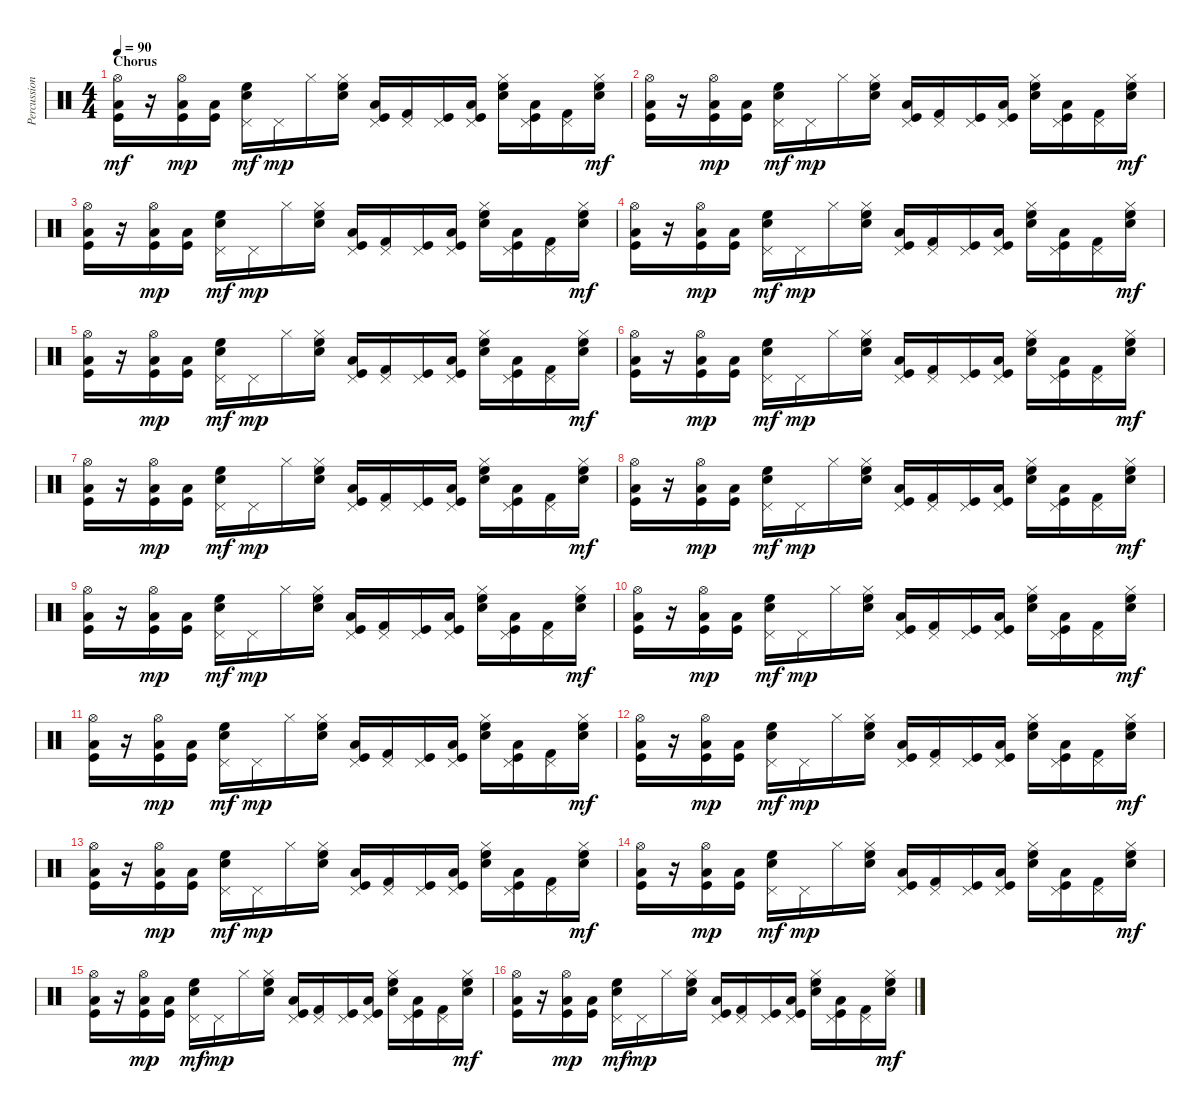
\track ("Percussion" "Percussion") {instrument percussion}
\staff {score}
\articulation defaults
\ts (4 4)
\section ("" "Chorus")
\tempo 90
\clef neutral
\ks c
("Kick (hit)" "Low Tom (hit)" "Hi-Hat (open)").16{dy mf} r.16 ("Kick (hit)" "Low Tom (hit)" "Hi-Hat (open)").16{dy mp} ("Kick (hit)" "Low Tom (hit)").16 ("Snare (hit) 2" "High Floor Tom (hit)" "Pedal Hi-Hat (hit)").16{dy mf} "Pedal Hi-Hat (hit)".16{dy mp} "Hi-Hat (closed)".16 ("Snare (hit) 2" "High Floor Tom (hit)" "Hi-Hat (closed)").16 ("Kick (hit)" "Low Tom (hit)" "Pedal Hi-Hat (hit)").16 ("Kick (hit) 2" "Pedal Hi-Hat (hit)").16 ("Kick (hit)" "Pedal Hi-Hat (hit)").16 ("Kick (hit)" "Low Tom (hit)" "Pedal Hi-Hat (hit)").16 ("Snare (hit) 2" "High Floor Tom (hit)" "Hi-Hat (closed)").16 ("Kick (hit)" "Low Tom (hit)" "Pedal Hi-Hat (hit)").16 ("Kick (hit) 2" "Pedal Hi-Hat (hit)").16 ("Snare (hit) 2" "High Floor Tom (hit)" "Hi-Hat (closed)").16{dy mf} |
("Kick (hit)" "Low Tom (hit)" "Hi-Hat (open)").16 r.16 ("Kick (hit)" "Low Tom (hit)" "Hi-Hat (open)").16{dy mp} ("Kick (hit)" "Low Tom (hit)").16 ("Snare (hit) 2" "High Floor Tom (hit)" "Pedal Hi-Hat (hit)").16{dy mf} "Pedal Hi-Hat (hit)".16{dy mp} "Hi-Hat (closed)".16 ("Snare (hit) 2" "High Floor Tom (hit)" "Hi-Hat (closed)").16 ("Kick (hit)" "Low Tom (hit)" "Pedal Hi-Hat (hit)").16 ("Kick (hit) 2" "Pedal Hi-Hat (hit)").16 ("Kick (hit)" "Pedal Hi-Hat (hit)").16 ("Kick (hit)" "Low Tom (hit)" "Pedal Hi-Hat (hit)").16 ("Snare (hit) 2" "High Floor Tom (hit)" "Hi-Hat (closed)").16 ("Kick (hit)" "Low Tom (hit)" "Pedal Hi-Hat (hit)").16 ("Kick (hit) 2" "Pedal Hi-Hat (hit)").16 ("Snare (hit) 2" "High Floor Tom (hit)" "Hi-Hat (closed)").16{dy mf} |
("Kick (hit)" "Low Tom (hit)" "Hi-Hat (open)").16 r.16 ("Kick (hit)" "Low Tom (hit)" "Hi-Hat (open)").16{dy mp} ("Kick (hit)" "Low Tom (hit)").16 ("Snare (hit) 2" "High Floor Tom (hit)" "Pedal Hi-Hat (hit)").16{dy mf} "Pedal Hi-Hat (hit)".16{dy mp} "Hi-Hat (closed)".16 ("Snare (hit) 2" "High Floor Tom (hit)" "Hi-Hat (closed)").16 ("Kick (hit)" "Low Tom (hit)" "Pedal Hi-Hat (hit)").16 ("Kick (hit) 2" "Pedal Hi-Hat (hit)").16 ("Kick (hit)" "Pedal Hi-Hat (hit)").16 ("Kick (hit)" "Low Tom (hit)" "Pedal Hi-Hat (hit)").16 ("Snare (hit) 2" "High Floor Tom (hit)" "Hi-Hat (closed)").16 ("Kick (hit)" "Low Tom (hit)" "Pedal Hi-Hat (hit)").16 ("Kick (hit) 2" "Pedal Hi-Hat (hit)").16 ("Snare (hit) 2" "High Floor Tom (hit)" "Hi-Hat (closed)").16{dy mf} |
("Kick (hit)" "Low Tom (hit)" "Hi-Hat (open)").16 r.16 ("Kick (hit)" "Low Tom (hit)" "Hi-Hat (open)").16{dy mp} ("Kick (hit)" "Low Tom (hit)").16 ("Snare (hit) 2" "High Floor Tom (hit)" "Pedal Hi-Hat (hit)").16{dy mf} "Pedal Hi-Hat (hit)".16{dy mp} "Hi-Hat (closed)".16 ("Snare (hit) 2" "High Floor Tom (hit)" "Hi-Hat (closed)").16 ("Kick (hit)" "Low Tom (hit)" "Pedal Hi-Hat (hit)").16 ("Kick (hit) 2" "Pedal Hi-Hat (hit)").16 ("Kick (hit)" "Pedal Hi-Hat (hit)").16 ("Kick (hit)" "Low Tom (hit)" "Pedal Hi-Hat (hit)").16 ("Snare (hit) 2" "High Floor Tom (hit)" "Hi-Hat (closed)").16 ("Kick (hit)" "Low Tom (hit)" "Pedal Hi-Hat (hit)").16 ("Kick (hit) 2" "Pedal Hi-Hat (hit)").16 ("Snare (hit) 2" "High Floor Tom (hit)" "Hi-Hat (closed)").16{dy mf} |
("Kick (hit)" "Low Tom (hit)" "Hi-Hat (open)").16 r.16 ("Kick (hit)" "Low Tom (hit)" "Hi-Hat (open)").16{dy mp} ("Kick (hit)" "Low Tom (hit)").16 ("Snare (hit) 2" "High Floor Tom (hit)" "Pedal Hi-Hat (hit)").16{dy mf} "Pedal Hi-Hat (hit)".16{dy mp} "Hi-Hat (closed)".16 ("Snare (hit) 2" "High Floor Tom (hit)" "Hi-Hat (closed)").16 ("Kick (hit)" "Low Tom (hit)" "Pedal Hi-Hat (hit)").16 ("Kick (hit) 2" "Pedal Hi-Hat (hit)").16 ("Kick (hit)" "Pedal Hi-Hat (hit)").16 ("Kick (hit)" "Low Tom (hit)" "Pedal Hi-Hat (hit)").16 ("Snare (hit) 2" "High Floor Tom (hit)" "Hi-Hat (closed)").16 ("Kick (hit)" "Low Tom (hit)" "Pedal Hi-Hat (hit)").16 ("Kick (hit) 2" "Pedal Hi-Hat (hit)").16 ("Snare (hit) 2" "High Floor Tom (hit)" "Hi-Hat (closed)").16{dy mf} |
("Kick (hit)" "Low Tom (hit)" "Hi-Hat (open)").16 r.16 ("Kick (hit)" "Low Tom (hit)" "Hi-Hat (open)").16{dy mp} ("Kick (hit)" "Low Tom (hit)").16 ("Snare (hit) 2" "High Floor Tom (hit)" "Pedal Hi-Hat (hit)").16{dy mf} "Pedal Hi-Hat (hit)".16{dy mp} "Hi-Hat (closed)".16 ("Snare (hit) 2" "High Floor Tom (hit)" "Hi-Hat (closed)").16 ("Kick (hit)" "Low Tom (hit)" "Pedal Hi-Hat (hit)").16 ("Kick (hit) 2" "Pedal Hi-Hat (hit)").16 ("Kick (hit)" "Pedal Hi-Hat (hit)").16 ("Kick (hit)" "Low Tom (hit)" "Pedal Hi-Hat (hit)").16 ("Snare (hit) 2" "High Floor Tom (hit)" "Hi-Hat (closed)").16 ("Kick (hit)" "Low Tom (hit)" "Pedal Hi-Hat (hit)").16 ("Kick (hit) 2" "Pedal Hi-Hat (hit)").16 ("Snare (hit) 2" "High Floor Tom (hit)" "Hi-Hat (closed)").16{dy mf} |
("Kick (hit)" "Low Tom (hit)" "Hi-Hat (open)").16 r.16 ("Kick (hit)" "Low Tom (hit)" "Hi-Hat (open)").16{dy mp} ("Kick (hit)" "Low Tom (hit)").16 ("Snare (hit) 2" "High Floor Tom (hit)" "Pedal Hi-Hat (hit)").16{dy mf} "Pedal Hi-Hat (hit)".16{dy mp} "Hi-Hat (closed)".16 ("Snare (hit) 2" "High Floor Tom (hit)" "Hi-Hat (closed)").16 ("Kick (hit)" "Low Tom (hit)" "Pedal Hi-Hat (hit)").16 ("Kick (hit) 2" "Pedal Hi-Hat (hit)").16 ("Kick (hit)" "Pedal Hi-Hat (hit)").16 ("Kick (hit)" "Low Tom (hit)" "Pedal Hi-Hat (hit)").16 ("Snare (hit) 2" "High Floor Tom (hit)" "Hi-Hat (closed)").16 ("Kick (hit)" "Low Tom (hit)" "Pedal Hi-Hat (hit)").16 ("Kick (hit) 2" "Pedal Hi-Hat (hit)").16 ("Snare (hit) 2" "High Floor Tom (hit)" "Hi-Hat (closed)").16{dy mf} |
("Kick (hit)" "Low Tom (hit)" "Hi-Hat (open)").16 r.16 ("Kick (hit)" "Low Tom (hit)" "Hi-Hat (open)").16{dy mp} ("Kick (hit)" "Low Tom (hit)").16 ("Snare (hit) 2" "High Floor Tom (hit)" "Pedal Hi-Hat (hit)").16{dy mf} "Pedal Hi-Hat (hit)".16{dy mp} "Hi-Hat (closed)".16 ("Snare (hit) 2" "High Floor Tom (hit)" "Hi-Hat (closed)").16 ("Kick (hit)" "Low Tom (hit)" "Pedal Hi-Hat (hit)").16 ("Kick (hit) 2" "Pedal Hi-Hat (hit)").16 ("Kick (hit)" "Pedal Hi-Hat (hit)").16 ("Kick (hit)" "Low Tom (hit)" "Pedal Hi-Hat (hit)").16 ("Snare (hit) 2" "High Floor Tom (hit)" "Hi-Hat (closed)").16 ("Kick (hit)" "Low Tom (hit)" "Pedal Hi-Hat (hit)").16 ("Kick (hit) 2" "Pedal Hi-Hat (hit)").16 ("Snare (hit) 2" "High Floor Tom (hit)" "Hi-Hat (closed)").16{dy mf} |
("Kick (hit)" "Low Tom (hit)" "Hi-Hat (open)").16 r.16 ("Kick (hit)" "Low Tom (hit)" "Hi-Hat (open)").16{dy mp} ("Kick (hit)" "Low Tom (hit)").16 ("Snare (hit) 2" "High Floor Tom (hit)" "Pedal Hi-Hat (hit)").16{dy mf} "Pedal Hi-Hat (hit)".16{dy mp} "Hi-Hat (closed)".16 ("Snare (hit) 2" "High Floor Tom (hit)" "Hi-Hat (closed)").16 ("Kick (hit)" "Low Tom (hit)" "Pedal Hi-Hat (hit)").16 ("Kick (hit) 2" "Pedal Hi-Hat (hit)").16 ("Kick (hit)" "Pedal Hi-Hat (hit)").16 ("Kick (hit)" "Low Tom (hit)" "Pedal Hi-Hat (hit)").16 ("Snare (hit) 2" "High Floor Tom (hit)" "Hi-Hat (closed)").16 ("Kick (hit)" "Low Tom (hit)" "Pedal Hi-Hat (hit)").16 ("Kick (hit) 2" "Pedal Hi-Hat (hit)").16 ("Snare (hit) 2" "High Floor Tom (hit)" "Hi-Hat (closed)").16{dy mf} |
("Kick (hit)" "Low Tom (hit)" "Hi-Hat (open)").16 r.16 ("Kick (hit)" "Low Tom (hit)" "Hi-Hat (open)").16{dy mp} ("Kick (hit)" "Low Tom (hit)").16 ("Snare (hit) 2" "High Floor Tom (hit)" "Pedal Hi-Hat (hit)").16{dy mf} "Pedal Hi-Hat (hit)".16{dy mp} "Hi-Hat (closed)".16 ("Snare (hit) 2" "High Floor Tom (hit)" "Hi-Hat (closed)").16 ("Kick (hit)" "Low Tom (hit)" "Pedal Hi-Hat (hit)").16 ("Kick (hit) 2" "Pedal Hi-Hat (hit)").16 ("Kick (hit)" "Pedal Hi-Hat (hit)").16 ("Kick (hit)" "Low Tom (hit)" "Pedal Hi-Hat (hit)").16 ("Snare (hit) 2" "High Floor Tom (hit)" "Hi-Hat (closed)").16 ("Kick (hit)" "Low Tom (hit)" "Pedal Hi-Hat (hit)").16 ("Kick (hit) 2" "Pedal Hi-Hat (hit)").16 ("Snare (hit) 2" "High Floor Tom (hit)" "Hi-Hat (closed)").16{dy mf} |
("Kick (hit)" "Low Tom (hit)" "Hi-Hat (open)").16 r.16 ("Kick (hit)" "Low Tom (hit)" "Hi-Hat (open)").16{dy mp} ("Kick (hit)" "Low Tom (hit)").16 ("Snare (hit) 2" "High Floor Tom (hit)" "Pedal Hi-Hat (hit)").16{dy mf} "Pedal Hi-Hat (hit)".16{dy mp} "Hi-Hat (closed)".16 ("Snare (hit) 2" "High Floor Tom (hit)" "Hi-Hat (closed)").16 ("Kick (hit)" "Low Tom (hit)" "Pedal Hi-Hat (hit)").16 ("Kick (hit) 2" "Pedal Hi-Hat (hit)").16 ("Kick (hit)" "Pedal Hi-Hat (hit)").16 ("Kick (hit)" "Low Tom (hit)" "Pedal Hi-Hat (hit)").16 ("Snare (hit) 2" "High Floor Tom (hit)" "Hi-Hat (closed)").16 ("Kick (hit)" "Low Tom (hit)" "Pedal Hi-Hat (hit)").16 ("Kick (hit) 2" "Pedal Hi-Hat (hit)").16 ("Snare (hit) 2" "High Floor Tom (hit)" "Hi-Hat (closed)").16{dy mf} |
("Kick (hit)" "Low Tom (hit)" "Hi-Hat (open)").16 r.16 ("Kick (hit)" "Low Tom (hit)" "Hi-Hat (open)").16{dy mp} ("Kick (hit)" "Low Tom (hit)").16 ("Snare (hit) 2" "High Floor Tom (hit)" "Pedal Hi-Hat (hit)").16{dy mf} "Pedal Hi-Hat (hit)".16{dy mp} "Hi-Hat (closed)".16 ("Snare (hit) 2" "High Floor Tom (hit)" "Hi-Hat (closed)").16 ("Kick (hit)" "Low Tom (hit)" "Pedal Hi-Hat (hit)").16 ("Kick (hit) 2" "Pedal Hi-Hat (hit)").16 ("Kick (hit)" "Pedal Hi-Hat (hit)").16 ("Kick (hit)" "Low Tom (hit)" "Pedal Hi-Hat (hit)").16 ("Snare (hit) 2" "High Floor Tom (hit)" "Hi-Hat (closed)").16 ("Kick (hit)" "Low Tom (hit)" "Pedal Hi-Hat (hit)").16 ("Kick (hit) 2" "Pedal Hi-Hat (hit)").16 ("Snare (hit) 2" "High Floor Tom (hit)" "Hi-Hat (closed)").16{dy mf} |
("Kick (hit)" "Low Tom (hit)" "Hi-Hat (open)").16 r.16 ("Kick (hit)" "Low Tom (hit)" "Hi-Hat (open)").16{dy mp} ("Kick (hit)" "Low Tom (hit)").16 ("Snare (hit) 2" "High Floor Tom (hit)" "Pedal Hi-Hat (hit)").16{dy mf} "Pedal Hi-Hat (hit)".16{dy mp} "Hi-Hat (closed)".16 ("Snare (hit) 2" "High Floor Tom (hit)" "Hi-Hat (closed)").16 ("Kick (hit)" "Low Tom (hit)" "Pedal Hi-Hat (hit)").16 ("Kick (hit) 2" "Pedal Hi-Hat (hit)").16 ("Kick (hit)" "Pedal Hi-Hat (hit)").16 ("Kick (hit)" "Low Tom (hit)" "Pedal Hi-Hat (hit)").16 ("Snare (hit) 2" "High Floor Tom (hit)" "Hi-Hat (closed)").16 ("Kick (hit)" "Low Tom (hit)" "Pedal Hi-Hat (hit)").16 ("Kick (hit) 2" "Pedal Hi-Hat (hit)").16 ("Snare (hit) 2" "High Floor Tom (hit)" "Hi-Hat (closed)").16{dy mf} |
("Kick (hit)" "Low Tom (hit)" "Hi-Hat (open)").16 r.16 ("Kick (hit)" "Low Tom (hit)" "Hi-Hat (open)").16{dy mp} ("Kick (hit)" "Low Tom (hit)").16 ("Snare (hit) 2" "High Floor Tom (hit)" "Pedal Hi-Hat (hit)").16{dy mf} "Pedal Hi-Hat (hit)".16{dy mp} "Hi-Hat (closed)".16 ("Snare (hit) 2" "High Floor Tom (hit)" "Hi-Hat (closed)").16 ("Kick (hit)" "Low Tom (hit)" "Pedal Hi-Hat (hit)").16 ("Kick (hit) 2" "Pedal Hi-Hat (hit)").16 ("Kick (hit)" "Pedal Hi-Hat (hit)").16 ("Kick (hit)" "Low Tom (hit)" "Pedal Hi-Hat (hit)").16 ("Snare (hit) 2" "High Floor Tom (hit)" "Hi-Hat (closed)").16 ("Kick (hit)" "Low Tom (hit)" "Pedal Hi-Hat (hit)").16 ("Kick (hit) 2" "Pedal Hi-Hat (hit)").16 ("Snare (hit) 2" "High Floor Tom (hit)" "Hi-Hat (closed)").16{dy mf} |
("Kick (hit)" "Low Tom (hit)" "Hi-Hat (open)").16 r.16 ("Kick (hit)" "Low Tom (hit)" "Hi-Hat (open)").16{dy mp} ("Kick (hit)" "Low Tom (hit)").16 ("Snare (hit) 2" "High Floor Tom (hit)" "Pedal Hi-Hat (hit)").16{dy mf} "Pedal Hi-Hat (hit)".16{dy mp} "Hi-Hat (closed)".16 ("Snare (hit) 2" "High Floor Tom (hit)" "Hi-Hat (closed)").16 ("Kick (hit)" "Low Tom (hit)" "Pedal Hi-Hat (hit)").16 ("Kick (hit) 2" "Pedal Hi-Hat (hit)").16 ("Kick (hit)" "Pedal Hi-Hat (hit)").16 ("Kick (hit)" "Low Tom (hit)" "Pedal Hi-Hat (hit)").16 ("Snare (hit) 2" "High Floor Tom (hit)" "Hi-Hat (closed)").16 ("Kick (hit)" "Low Tom (hit)" "Pedal Hi-Hat (hit)").16 ("Kick (hit) 2" "Pedal Hi-Hat (hit)").16 ("Snare (hit) 2" "High Floor Tom (hit)" "Hi-Hat (closed)").16{dy mf} |
("Kick (hit)" "Low Tom (hit)" "Hi-Hat (open)").16 r.16 ("Kick (hit)" "Low Tom (hit)" "Hi-Hat (open)").16{dy mp} ("Kick (hit)" "Low Tom (hit)").16 ("Snare (hit) 2" "High Floor Tom (hit)" "Pedal Hi-Hat (hit)").16{dy mf} "Pedal Hi-Hat (hit)".16{dy mp} "Hi-Hat (closed)".16 ("Snare (hit) 2" "High Floor Tom (hit)" "Hi-Hat (closed)").16 ("Kick (hit)" "Low Tom (hit)" "Pedal Hi-Hat (hit)").16 ("Kick (hit) 2" "Pedal Hi-Hat (hit)").16 ("Kick (hit)" "Pedal Hi-Hat (hit)").16 ("Kick (hit)" "Low Tom (hit)" "Pedal Hi-Hat (hit)").16 ("Snare (hit) 2" "High Floor Tom (hit)" "Hi-Hat (closed)").16 ("Kick (hit)" "Low Tom (hit)" "Pedal Hi-Hat (hit)").16 ("Kick (hit) 2" "Pedal Hi-Hat (hit)").16 ("Snare (hit) 2" "High Floor Tom (hit)" "Hi-Hat (closed)").16{dy mf}
